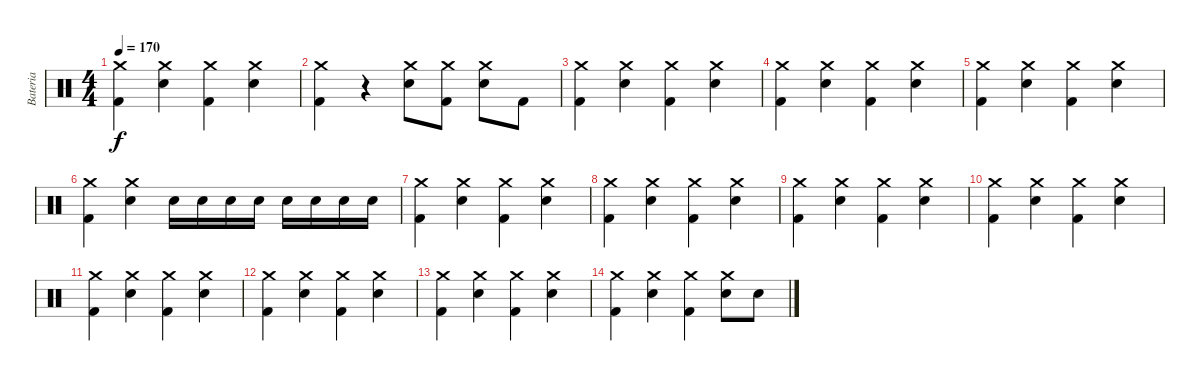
\track ("Bateria" "Bateria") {instrument percussion}
\staff {score}
\articulation defaults
\ts (4 4)
\tempo 170
\clef neutral
\ks c
("Crash medium (hit)" "Kick (hit) 2").4{dy f} ("Crash medium (hit)" "Electric Snare (hit)").4 ("Crash medium (hit)" "Kick (hit) 2").4 ("Crash medium (hit)" "Electric Snare (hit)").4 |
("Crash medium (hit)" "Kick (hit) 2").4 r.4 ("Crash medium (hit)" "Electric Snare (hit)").8 ("Crash medium (hit)" "Kick (hit) 2").8 ("Crash medium (hit)" "Electric Snare (hit)").8 "Kick (hit) 2".8 |
("Crash medium (hit)" "Kick (hit) 2").4 ("Crash medium (hit)" "Electric Snare (hit)").4 ("Crash medium (hit)" "Kick (hit) 2").4 ("Crash medium (hit)" "Electric Snare (hit)").4 |
("Crash medium (hit)" "Kick (hit) 2").4 ("Crash medium (hit)" "Electric Snare (hit)").4 ("Crash medium (hit)" "Kick (hit) 2").4 ("Crash medium (hit)" "Electric Snare (hit)").4 |
("Crash medium (hit)" "Kick (hit) 2").4 ("Crash medium (hit)" "Electric Snare (hit)").4 ("Crash medium (hit)" "Kick (hit) 2").4 ("Crash medium (hit)" "Electric Snare (hit)").4 |
("Crash medium (hit)" "Kick (hit) 2").4 ("Crash medium (hit)" "Electric Snare (hit)").4 "Electric Snare (hit)".16 "Electric Snare (hit)".16 "Electric Snare (hit)".16 "Electric Snare (hit)".16 "Electric Snare (hit)".16 "Electric Snare (hit)".16 "Electric Snare (hit)".16 "Electric Snare (hit)".16 |
("Crash medium (hit)" "Kick (hit) 2").4 ("Crash medium (hit)" "Electric Snare (hit)").4 ("Crash medium (hit)" "Kick (hit) 2").4 ("Crash medium (hit)" "Electric Snare (hit)").4 |
("Crash medium (hit)" "Kick (hit) 2").4 ("Crash medium (hit)" "Electric Snare (hit)").4 ("Crash medium (hit)" "Kick (hit) 2").4 ("Crash medium (hit)" "Electric Snare (hit)").4 |
("Crash medium (hit)" "Kick (hit) 2").4 ("Crash medium (hit)" "Electric Snare (hit)").4 ("Crash medium (hit)" "Kick (hit) 2").4 ("Crash medium (hit)" "Electric Snare (hit)").4 |
("Crash medium (hit)" "Kick (hit) 2").4 ("Crash medium (hit)" "Electric Snare (hit)").4 ("Crash medium (hit)" "Kick (hit) 2").4 ("Crash medium (hit)" "Electric Snare (hit)").4 |
("Crash medium (hit)" "Kick (hit) 2").4 ("Crash medium (hit)" "Electric Snare (hit)").4 ("Crash medium (hit)" "Kick (hit) 2").4 ("Crash medium (hit)" "Electric Snare (hit)").4 |
("Crash medium (hit)" "Kick (hit) 2").4 ("Crash medium (hit)" "Electric Snare (hit)").4 ("Crash medium (hit)" "Kick (hit) 2").4 ("Crash medium (hit)" "Electric Snare (hit)").4 |
("Crash medium (hit)" "Kick (hit) 2").4 ("Crash medium (hit)" "Electric Snare (hit)").4 ("Crash medium (hit)" "Kick (hit) 2").4 ("Crash medium (hit)" "Electric Snare (hit)").4 |
("Crash medium (hit)" "Kick (hit) 2").4 ("Crash medium (hit)" "Electric Snare (hit)").4 ("Crash medium (hit)" "Kick (hit) 2").4 ("Crash medium (hit)" "Electric Snare (hit)").8 "Electric Snare (hit)".8
